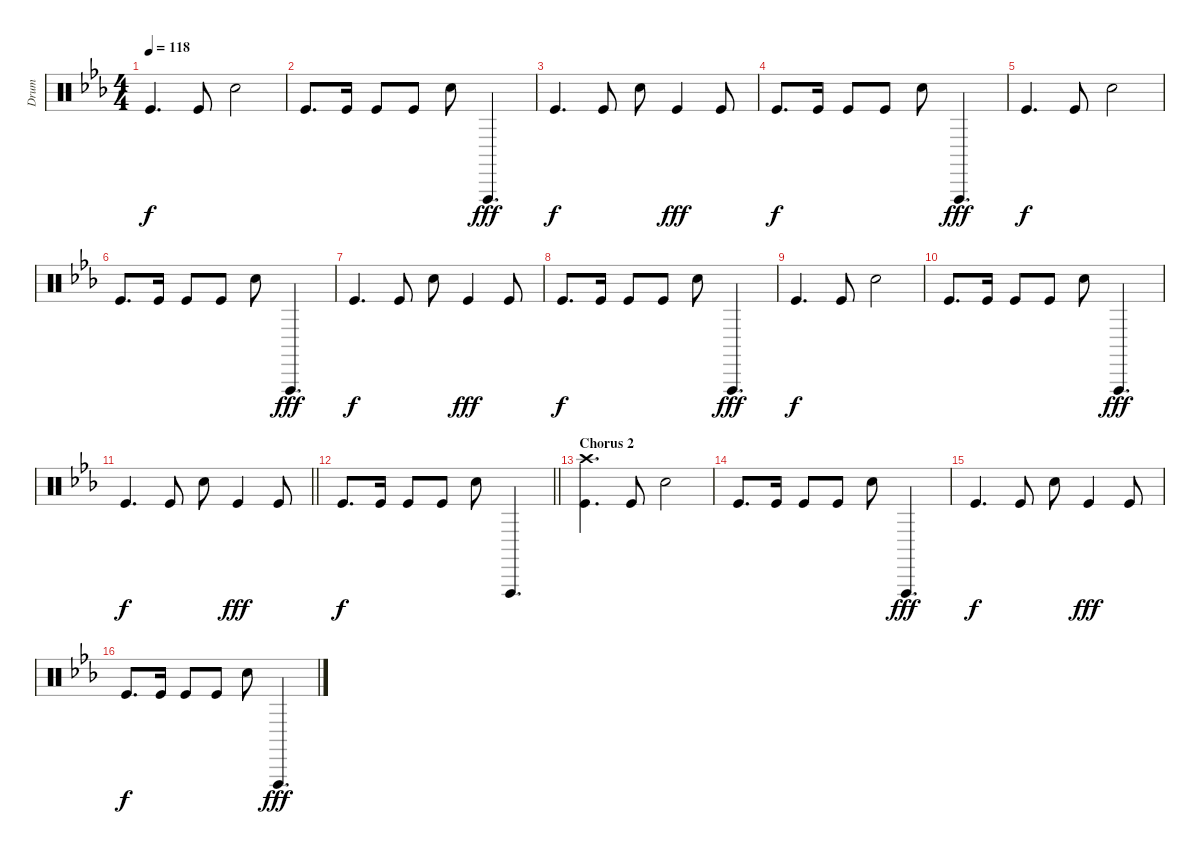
\track ("Drum" "Drum") {instrument percussion}
\staff {score}
\articulation defaults
\ts (4 4)
\tempo 118
\clef neutral
\ks eb "Kick (hit)".4{d dy f} "Kick (hit)".8 "Hand Clap (hit)".2
|
"Kick (hit)".8{d} "Kick (hit)".16 "Kick (hit)".8 "Kick (hit)".8 "Hand Clap (hit)".8 "Vibraslap (hit)".4{d dy fff} |
"Kick (hit)".4{d dy f} "Kick (hit)".8 "Hand Clap (hit)".8 "Kick (hit)".4{dy fff} "Kick (hit)".8 |
"Kick (hit)".8{d dy f} "Kick (hit)".16 "Kick (hit)".8 "Kick (hit)".8 "Hand Clap (hit)".8 "Vibraslap (hit)".4{d dy fff} |
"Kick (hit)".4{d dy f} "Kick (hit)".8 "Hand Clap (hit)".2 |
"Kick (hit)".8{d} "Kick (hit)".16 "Kick (hit)".8 "Kick (hit)".8 "Hand Clap (hit)".8 "Vibraslap (hit)".4{d dy fff} |
"Kick (hit)".4{d dy f} "Kick (hit)".8 "Hand Clap (hit)".8 "Kick (hit)".4{dy fff} "Kick (hit)".8 |
"Kick (hit)".8{d dy f} "Kick (hit)".16 "Kick (hit)".8 "Kick (hit)".8 "Hand Clap (hit)".8 "Vibraslap (hit)".4{d dy fff} |
"Kick (hit)".4{d dy f} "Kick (hit)".8 "Hand Clap (hit)".2 |
"Kick (hit)".8{d} "Kick (hit)".16 "Kick (hit)".8 "Kick (hit)".8 "Hand Clap (hit)".8 "Vibraslap (hit)".4{d dy fff} |
\barLineRight lightlight "Kick (hit)".4{d dy f} "Kick (hit)".8 "Hand Clap (hit)".8 "Kick (hit)".4{dy fff} "Kick (hit)".8
|
\barLineRight lightlight "Kick (hit)".8{d dy f} "Kick (hit)".16 "Kick (hit)".8 "Kick (hit)".8 "Hand Clap (hit)".8 "Vibraslap (hit)".4{d}
|
\section ("" "Chorus 2")
("Crash high (hit)" "Kick (hit)").4{d} "Kick (hit)".8 "Hand Clap (hit)".2 |
"Kick (hit)".8{d} "Kick (hit)".16 "Kick (hit)".8 "Kick (hit)".8 "Hand Clap (hit)".8 "Vibraslap (hit)".4{d dy fff} |
"Kick (hit)".4{d dy f} "Kick (hit)".8 "Hand Clap (hit)".8 "Kick (hit)".4{dy fff} "Kick (hit)".8 |
"Kick (hit)".8{d dy f} "Kick (hit)".16 "Kick (hit)".8 "Kick (hit)".8 "Hand Clap (hit)".8 "Vibraslap (hit)".4{d dy fff}
